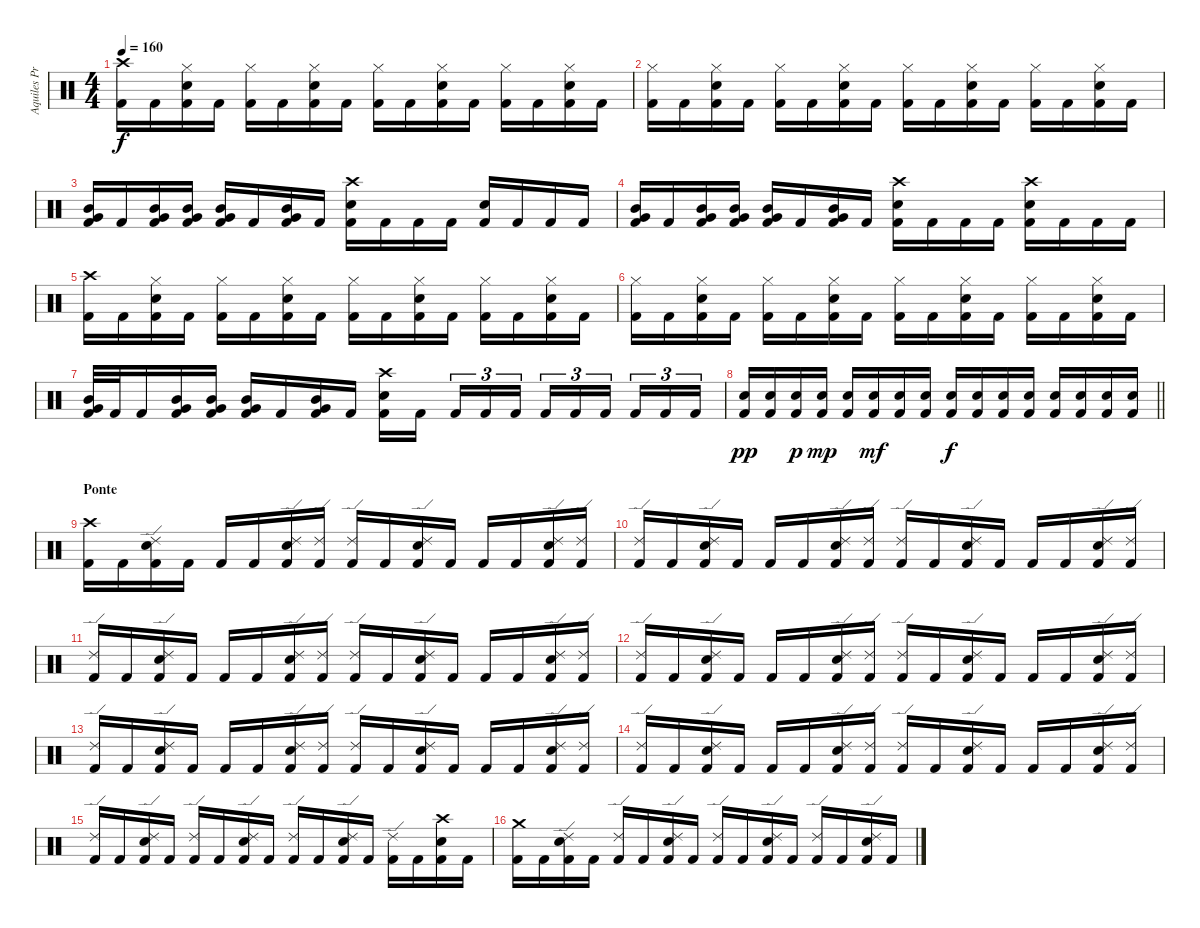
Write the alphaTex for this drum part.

\track ("Aquiles Priester" "Aquiles Pr") {instrument percussion}
\staff {score}
\articulation defaults
\ts (4 4)
\tempo 160
\clef neutral
\ks c
("Crash high (hit)" "Kick (hit) 2").16{dy f} "Kick (hit) 2".16 ("Hi-Hat (closed)" "Electric Snare (hit)" "Kick (hit) 2").16 "Kick (hit) 2".16 ("Hi-Hat (closed)" "Kick (hit) 2").16 "Kick (hit) 2".16 ("Hi-Hat (closed)" "Electric Snare (hit)" "Kick (hit) 2").16 "Kick (hit) 2".16 ("Hi-Hat (closed)" "Kick (hit) 2").16 "Kick (hit) 2".16 ("Hi-Hat (closed)" "Electric Snare (hit)" "Kick (hit) 2").16 "Kick (hit) 2".16 ("Hi-Hat (closed)" "Kick (hit) 2").16 "Kick (hit) 2".16 ("Hi-Hat (closed)" "Electric Snare (hit)" "Kick (hit) 2").16 "Kick (hit) 2".16 |
("Hi-Hat (closed)" "Kick (hit) 2").16 "Kick (hit) 2".16 ("Hi-Hat (closed)" "Electric Snare (hit)" "Kick (hit) 2").16 "Kick (hit) 2".16 ("Hi-Hat (closed)" "Kick (hit) 2").16 "Kick (hit) 2".16 ("Hi-Hat (closed)" "Electric Snare (hit)" "Kick (hit) 2").16 "Kick (hit) 2".16 ("Hi-Hat (closed)" "Kick (hit) 2").16 "Kick (hit) 2".16 ("Hi-Hat (closed)" "Electric Snare (hit)" "Kick (hit) 2").16 "Kick (hit) 2".16 ("Hi-Hat (closed)" "Kick (hit) 2").16 "Kick (hit) 2".16 ("Hi-Hat (closed)" "Electric Snare (hit)" "Kick (hit) 2").16 "Kick (hit) 2".16 |
("Mid Tom (hit)" "Very Low Tom (hit)" "Kick (hit) 2").16 "Kick (hit) 2".16 ("Mid Tom (hit)" "Very Low Tom (hit)" "Kick (hit) 2").16 ("Mid Tom (hit)" "Very Low Tom (hit)" "Kick (hit) 2").16 ("Mid Tom (hit)" "Very Low Tom (hit)" "Kick (hit) 2").16 "Kick (hit) 2".16 ("Mid Tom (hit)" "Very Low Tom (hit)" "Kick (hit) 2").16 "Kick (hit) 2".16 ("Crash high (hit)" "Electric Snare (hit)" "Kick (hit) 2").16 "Kick (hit) 2".16 "Kick (hit) 2".16 "Kick (hit) 2".16 ("Electric Snare (hit)" "Kick (hit) 2").16 "Kick (hit) 2".16 "Kick (hit) 2".16 "Kick (hit) 2".16 |
("Mid Tom (hit)" "Very Low Tom (hit)" "Kick (hit) 2").16 "Kick (hit) 2".16 ("Mid Tom (hit)" "Very Low Tom (hit)" "Kick (hit) 2").16 ("Mid Tom (hit)" "Very Low Tom (hit)" "Kick (hit) 2").16 ("Mid Tom (hit)" "Very Low Tom (hit)" "Kick (hit) 2").16 "Kick (hit) 2".16 ("Mid Tom (hit)" "Very Low Tom (hit)" "Kick (hit) 2").16 "Kick (hit) 2".16 ("Crash high (hit)" "Electric Snare (hit)" "Kick (hit) 2").16 "Kick (hit) 2".16 "Kick (hit) 2".16 "Kick (hit) 2".16 ("Crash high (hit)" "Electric Snare (hit)" "Kick (hit) 2").16 "Kick (hit) 2".16 "Kick (hit) 2".16 "Kick (hit) 2".16 |
("Crash high (hit)" "Kick (hit) 2").16 "Kick (hit) 2".16 ("Hi-Hat (closed)" "Electric Snare (hit)" "Kick (hit) 2").16 "Kick (hit) 2".16 ("Hi-Hat (closed)" "Kick (hit) 2").16 "Kick (hit) 2".16 ("Hi-Hat (closed)" "Electric Snare (hit)" "Kick (hit) 2").16 "Kick (hit) 2".16 ("Hi-Hat (closed)" "Kick (hit) 2").16 "Kick (hit) 2".16 ("Hi-Hat (closed)" "Electric Snare (hit)" "Kick (hit) 2").16 "Kick (hit) 2".16 ("Hi-Hat (closed)" "Kick (hit) 2").16 "Kick (hit) 2".16 ("Hi-Hat (closed)" "Electric Snare (hit)" "Kick (hit) 2").16 "Kick (hit) 2".16 |
("Hi-Hat (closed)" "Kick (hit) 2").16 "Kick (hit) 2".16 ("Hi-Hat (closed)" "Electric Snare (hit)" "Kick (hit) 2").16 "Kick (hit) 2".16 ("Hi-Hat (closed)" "Kick (hit) 2").16 "Kick (hit) 2".16 ("Hi-Hat (closed)" "Electric Snare (hit)" "Kick (hit) 2").16 "Kick (hit) 2".16 ("Hi-Hat (closed)" "Kick (hit) 2").16 "Kick (hit) 2".16 ("Hi-Hat (closed)" "Electric Snare (hit)" "Kick (hit) 2").16 "Kick (hit) 2".16 ("Hi-Hat (closed)" "Kick (hit) 2").16 "Kick (hit) 2".16 ("Hi-Hat (closed)" "Electric Snare (hit)" "Kick (hit) 2").16 "Kick (hit) 2".16 |
("Mid Tom (hit)" "Very Low Tom (hit)" "Kick (hit) 2").32 "Kick (hit) 2".32 "Kick (hit) 2".16 ("Mid Tom (hit)" "Very Low Tom (hit)" "Kick (hit) 2").16 ("Mid Tom (hit)" "Very Low Tom (hit)" "Kick (hit) 2").16 ("Mid Tom (hit)" "Very Low Tom (hit)" "Kick (hit) 2").16 "Kick (hit) 2".16 ("Mid Tom (hit)" "Very Low Tom (hit)" "Kick (hit) 2").16 "Kick (hit) 2".16 ("Crash high (hit)" "Electric Snare (hit)" "Kick (hit) 2").16 "Kick (hit) 2".16{beam splitsecondary} "Kick (hit) 2".16{tu (3 2)} "Kick (hit) 2".16{tu (3 2)} "Kick (hit) 2".16{tu (3 2)} "Kick (hit) 2".16{tu (3 2)} "Kick (hit) 2".16{tu (3 2)} "Kick (hit) 2".16{tu (3 2) beam splitsecondary} "Kick (hit) 2".16{tu (3 2)} "Kick (hit) 2".16{tu (3 2)} "Kick (hit) 2".16{tu (3 2)} |
\barLineRight lightlight
("Electric Snare (hit)" "Kick (hit) 2").16{dy pp} ("Electric Snare (hit)" "Kick (hit) 2").16 ("Electric Snare (hit)" "Kick (hit) 2").16{dy p} ("Electric Snare (hit)" "Kick (hit) 2").16{dy mp} ("Electric Snare (hit)" "Kick (hit) 2").16 ("Electric Snare (hit)" "Kick (hit) 2").16{dy mf} ("Electric Snare (hit)" "Kick (hit) 2").16 ("Electric Snare (hit)" "Kick (hit) 2").16 ("Electric Snare (hit)" "Kick (hit) 2").16{dy f} ("Electric Snare (hit)" "Kick (hit) 2").16 ("Electric Snare (hit)" "Kick (hit) 2").16 ("Electric Snare (hit)" "Kick (hit) 2").16 ("Electric Snare (hit)" "Kick (hit) 2").16 ("Electric Snare (hit)" "Kick (hit) 2").16 ("Electric Snare (hit)" "Kick (hit) 2").16 ("Electric Snare (hit)" "Kick (hit) 2").16 |
\section ("" "Ponte")
("Crash high (hit)" "Kick (hit) 2").16 "Kick (hit) 2".16 ("Ride (edge) 2" "Electric Snare (hit)" "Kick (hit) 2").16 "Kick (hit) 2".16 "Kick (hit) 2".16 "Kick (hit) 2".16 ("Ride (edge) 2" "Electric Snare (hit)" "Kick (hit) 2").16 ("Ride (edge) 2" "Kick (hit) 2").16 ("Ride (edge) 2" "Kick (hit) 2").16 "Kick (hit) 2".16 ("Ride (edge) 2" "Electric Snare (hit)" "Kick (hit) 2").16 "Kick (hit) 2".16 "Kick (hit) 2".16 "Kick (hit) 2".16 ("Ride (edge) 2" "Electric Snare (hit)" "Kick (hit) 2").16 ("Ride (edge) 2" "Kick (hit) 2").16 |
("Ride (edge) 2" "Kick (hit) 2").16 "Kick (hit) 2".16 ("Ride (edge) 2" "Electric Snare (hit)" "Kick (hit) 2").16 "Kick (hit) 2".16 "Kick (hit) 2".16 "Kick (hit) 2".16 ("Ride (edge) 2" "Electric Snare (hit)" "Kick (hit) 2").16 ("Ride (edge) 2" "Kick (hit) 2").16 ("Ride (edge) 2" "Kick (hit) 2").16 "Kick (hit) 2".16 ("Ride (edge) 2" "Electric Snare (hit)" "Kick (hit) 2").16 "Kick (hit) 2".16 "Kick (hit) 2".16 "Kick (hit) 2".16 ("Ride (edge) 2" "Electric Snare (hit)" "Kick (hit) 2").16 ("Ride (edge) 2" "Kick (hit) 2").16 |
("Ride (edge) 2" "Kick (hit) 2").16 "Kick (hit) 2".16 ("Ride (edge) 2" "Electric Snare (hit)" "Kick (hit) 2").16 "Kick (hit) 2".16 "Kick (hit) 2".16 "Kick (hit) 2".16 ("Ride (edge) 2" "Electric Snare (hit)" "Kick (hit) 2").16 ("Ride (edge) 2" "Kick (hit) 2").16 ("Ride (edge) 2" "Kick (hit) 2").16 "Kick (hit) 2".16 ("Ride (edge) 2" "Electric Snare (hit)" "Kick (hit) 2").16 "Kick (hit) 2".16 "Kick (hit) 2".16 "Kick (hit) 2".16 ("Ride (edge) 2" "Electric Snare (hit)" "Kick (hit) 2").16 ("Ride (edge) 2" "Kick (hit) 2").16 |
("Ride (edge) 2" "Kick (hit) 2").16 "Kick (hit) 2".16 ("Ride (edge) 2" "Electric Snare (hit)" "Kick (hit) 2").16 "Kick (hit) 2".16 "Kick (hit) 2".16 "Kick (hit) 2".16 ("Ride (edge) 2" "Electric Snare (hit)" "Kick (hit) 2").16 ("Ride (edge) 2" "Kick (hit) 2").16 ("Ride (edge) 2" "Kick (hit) 2").16 "Kick (hit) 2".16 ("Ride (edge) 2" "Electric Snare (hit)" "Kick (hit) 2").16 "Kick (hit) 2".16 "Kick (hit) 2".16 "Kick (hit) 2".16 ("Ride (edge) 2" "Electric Snare (hit)" "Kick (hit) 2").16 ("Ride (edge) 2" "Kick (hit) 2").16 |
("Ride (edge) 2" "Kick (hit) 2").16 "Kick (hit) 2".16 ("Ride (edge) 2" "Electric Snare (hit)" "Kick (hit) 2").16 "Kick (hit) 2".16 "Kick (hit) 2".16 "Kick (hit) 2".16 ("Ride (edge) 2" "Electric Snare (hit)" "Kick (hit) 2").16 ("Ride (edge) 2" "Kick (hit) 2").16 ("Ride (edge) 2" "Kick (hit) 2").16 "Kick (hit) 2".16 ("Ride (edge) 2" "Electric Snare (hit)" "Kick (hit) 2").16 "Kick (hit) 2".16 "Kick (hit) 2".16 "Kick (hit) 2".16 ("Ride (edge) 2" "Electric Snare (hit)" "Kick (hit) 2").16 ("Ride (edge) 2" "Kick (hit) 2").16 |
("Ride (edge) 2" "Kick (hit) 2").16 "Kick (hit) 2".16 ("Ride (edge) 2" "Electric Snare (hit)" "Kick (hit) 2").16 "Kick (hit) 2".16 "Kick (hit) 2".16 "Kick (hit) 2".16 ("Ride (edge) 2" "Electric Snare (hit)" "Kick (hit) 2").16 ("Ride (edge) 2" "Kick (hit) 2").16 ("Ride (edge) 2" "Kick (hit) 2").16 "Kick (hit) 2".16 ("Ride (edge) 2" "Electric Snare (hit)" "Kick (hit) 2").16 "Kick (hit) 2".16 "Kick (hit) 2".16 "Kick (hit) 2".16 ("Ride (edge) 2" "Electric Snare (hit)" "Kick (hit) 2").16 ("Ride (edge) 2" "Kick (hit) 2").16 |
("Ride (edge) 2" "Kick (hit) 2").16 "Kick (hit) 2".16 ("Ride (edge) 2" "Electric Snare (hit)" "Kick (hit) 2").16 "Kick (hit) 2".16 ("Ride (edge) 2" "Kick (hit) 2").16 "Kick (hit) 2".16 ("Ride (edge) 2" "Electric Snare (hit)" "Kick (hit) 2").16 "Kick (hit) 2".16 ("Ride (edge) 2" "Kick (hit) 2").16 "Kick (hit) 2".16 ("Ride (edge) 2" "Electric Snare (hit)" "Kick (hit) 2").16 "Kick (hit) 2".16 ("Ride (edge) 2" "Kick (hit) 2").16 "Kick (hit) 2".16 ("Crash high (hit)" "Electric Snare (hit)" "Kick (hit) 2").16 "Kick (hit) 2".16 |
("Crash medium (hit)" "Kick (hit) 2").16 "Kick (hit) 2".16 ("Ride (edge) 2" "Electric Snare (hit)" "Kick (hit) 2").16 "Kick (hit) 2".16 ("Ride (edge) 2" "Kick (hit) 2").16 "Kick (hit) 2".16 ("Ride (edge) 2" "Electric Snare (hit)" "Kick (hit) 2").16 "Kick (hit) 2".16 ("Ride (edge) 2" "Kick (hit) 2").16 "Kick (hit) 2".16 ("Ride (edge) 2" "Electric Snare (hit)" "Kick (hit) 2").16 "Kick (hit) 2".16 ("Ride (edge) 2" "Kick (hit) 2").16 "Kick (hit) 2".16 ("Ride (edge) 2" "Electric Snare (hit)" "Kick (hit) 2").16 "Kick (hit) 2".16
